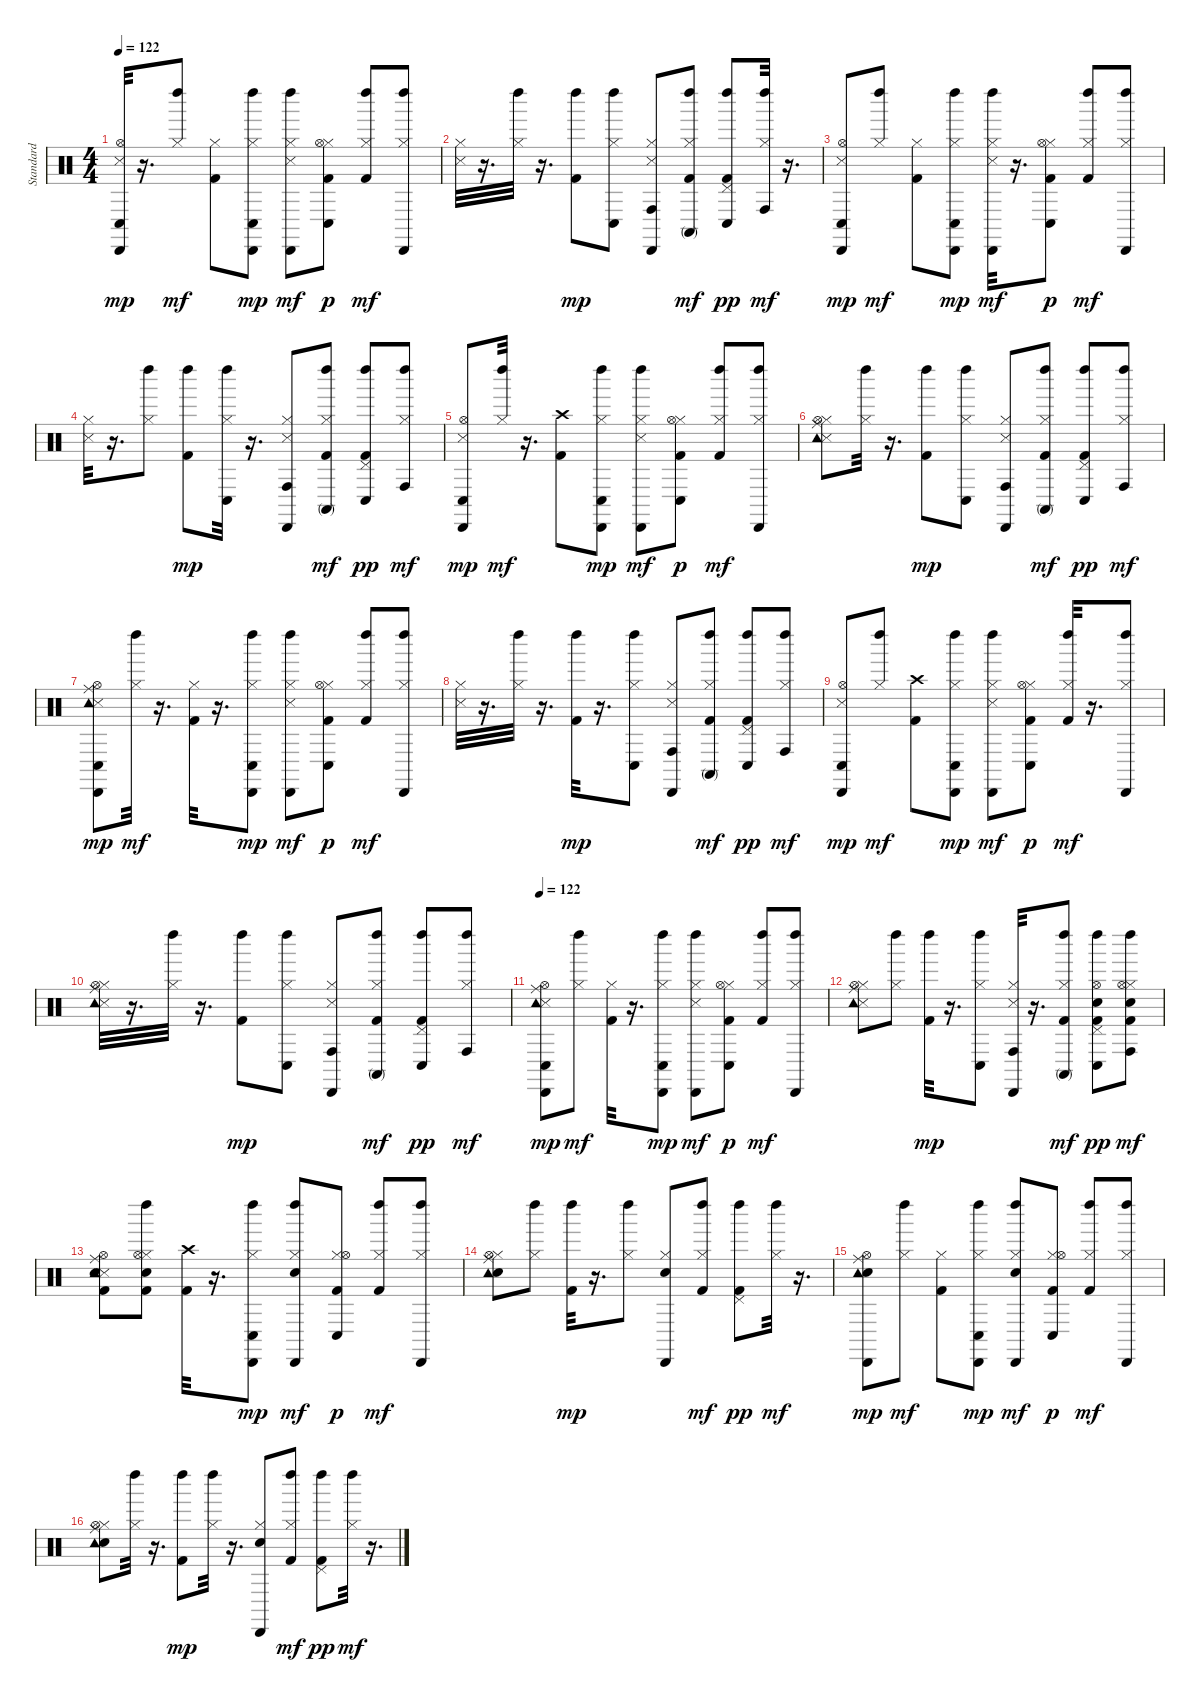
\track (" Standard" " Standard") {instrument percussion}
\staff {score}
\articulation defaults
\ts (4 4)
\tempo 122
\clef neutral
\ks c
("Snare (side stick) 3" "Hi-Hat (open)" "Conga low (hit)" "Cabasa (hit)").32{dy mp} r.16{d} ("Hi-Hat (closed)" "Left Maraca (hit)").8{dy mf} ("Kick (hit) 2" "Hi-Hat (closed)").8 ("Hi-Hat (closed)" "Conga low (hit)" "Cabasa (hit)" "Left Maraca (hit)").8{dy mp} ("Snare (side stick) 3" "Hi-Hat (closed)" "Cabasa (hit)" "Left Maraca (hit)").8{dy mf} ("Kick (hit) 2" "Hi-Hat (closed)" "Hi-Hat (open)" "Conga low (hit)").8{dy p} ("Kick (hit) 2" "Hi-Hat (closed)" "Left Maraca (hit)").8{dy mf} ("Hi-Hat (closed)" "Cabasa (hit)" "Left Maraca (hit)").8 |
("Snare (side stick) 3" "Hi-Hat (closed)").32 r.16{d} ("Hi-Hat (closed)" "Left Maraca (hit)").32 r.16{d} ("Kick (hit) 2" "Left Maraca (hit)").8{dy mp} ("Hi-Hat (closed)" "Conga low (hit)" "Left Maraca (hit)").8 ("Snare (side stick) 3" "Hi-Hat (closed)" "Conga high (hit)" "Cabasa (hit)").8 ("Kick (hit) 2" "Hi-Hat (closed)" "Conga high (mute)" "Left Maraca (hit)").8{dy mf} ("Kick (hit) 2" "Pedal Hi-Hat (hit)" "Conga low (hit)" "Left Maraca (hit)").8{dy pp} ("Hi-Hat (closed)" "Conga high (hit)" "Left Maraca (hit)").32{dy mf} r.16{d} |
("Snare (side stick) 3" "Hi-Hat (open)" "Conga low (hit)" "Cabasa (hit)").8{dy mp} ("Hi-Hat (closed)" "Left Maraca (hit)").8{dy mf} ("Kick (hit) 2" "Hi-Hat (closed)").8 ("Hi-Hat (closed)" "Conga low (hit)" "Cabasa (hit)" "Left Maraca (hit)").8{dy mp} ("Snare (side stick) 3" "Hi-Hat (closed)" "Cabasa (hit)" "Left Maraca (hit)").32{dy mf} r.16{d} ("Kick (hit) 2" "Hi-Hat (closed)" "Hi-Hat (open)" "Conga low (hit)").8{dy p} ("Kick (hit) 2" "Hi-Hat (closed)" "Left Maraca (hit)").8{dy mf} ("Hi-Hat (closed)" "Cabasa (hit)" "Left Maraca (hit)").8 |
("Snare (side stick) 3" "Hi-Hat (closed)").32 r.16{d} ("Hi-Hat (closed)" "Left Maraca (hit)").8 ("Kick (hit) 2" "Left Maraca (hit)").8{dy mp} ("Hi-Hat (closed)" "Conga low (hit)" "Left Maraca (hit)").32 r.16{d} ("Snare (side stick) 3" "Hi-Hat (closed)" "Conga high (hit)" "Cabasa (hit)").8 ("Kick (hit) 2" "Hi-Hat (closed)" "Conga high (mute)" "Left Maraca (hit)").8{dy mf} ("Kick (hit) 2" "Pedal Hi-Hat (hit)" "Conga low (hit)" "Left Maraca (hit)").8{dy pp} ("Hi-Hat (closed)" "Conga high (hit)" "Left Maraca (hit)").8{dy mf} |
("Snare (side stick) 3" "Hi-Hat (open)" "Conga low (hit)" "Cabasa (hit)").8{dy mp} ("Hi-Hat (closed)" "Left Maraca (hit)").32{dy mf} r.16{d} ("Kick (hit) 2" "Crash high (hit)").8 ("Hi-Hat (closed)" "Conga low (hit)" "Cabasa (hit)" "Left Maraca (hit)").8{dy mp} ("Snare (side stick) 3" "Hi-Hat (closed)" "Cabasa (hit)" "Left Maraca (hit)").8{dy mf} ("Kick (hit) 2" "Hi-Hat (closed)" "Hi-Hat (open)" "Conga low (hit)").8{dy p} ("Kick (hit) 2" "Hi-Hat (closed)" "Left Maraca (hit)").8{dy mf} ("Hi-Hat (closed)" "Cabasa (hit)" "Left Maraca (hit)").8 |
("Snare (side stick) 3" "Hi-Hat (closed)" "Hi-Hat (open)" "Ride (middle)" "Tambourine (hit)").8 ("Hi-Hat (closed)" "Left Maraca (hit)").32 r.16{d} ("Kick (hit) 2" "Left Maraca (hit)").8{dy mp} ("Hi-Hat (closed)" "Conga low (hit)" "Left Maraca (hit)").8 ("Snare (side stick) 3" "Hi-Hat (closed)" "Conga high (hit)" "Cabasa (hit)").8 ("Kick (hit) 2" "Hi-Hat (closed)" "Conga high (mute)" "Left Maraca (hit)").8{dy mf} ("Kick (hit) 2" "Pedal Hi-Hat (hit)" "Conga low (hit)" "Left Maraca (hit)").8{dy pp} ("Hi-Hat (closed)" "Conga high (hit)" "Left Maraca (hit)").8{dy mf} |
("Snare (side stick) 3" "Hi-Hat (open)" "Ride (middle)" "Tambourine (hit)" "Conga low (hit)" "Cabasa (hit)").8{dy mp} ("Hi-Hat (closed)" "Left Maraca (hit)").32{dy mf} r.16{d} ("Kick (hit) 2" "Hi-Hat (closed)").32 r.16{d} ("Hi-Hat (closed)" "Conga low (hit)" "Cabasa (hit)" "Left Maraca (hit)").8{dy mp} ("Snare (side stick) 3" "Hi-Hat (closed)" "Cabasa (hit)" "Left Maraca (hit)").8{dy mf} ("Kick (hit) 2" "Hi-Hat (closed)" "Hi-Hat (open)" "Conga low (hit)").8{dy p} ("Kick (hit) 2" "Hi-Hat (closed)" "Left Maraca (hit)").8{dy mf} ("Hi-Hat (closed)" "Cabasa (hit)" "Left Maraca (hit)").8 |
("Snare (side stick) 3" "Hi-Hat (closed)").32 r.16{d} ("Hi-Hat (closed)" "Left Maraca (hit)").32 r.16{d} ("Kick (hit) 2" "Left Maraca (hit)").32{dy mp} r.16{d} ("Hi-Hat (closed)" "Conga low (hit)" "Left Maraca (hit)").8 ("Snare (side stick) 3" "Hi-Hat (closed)" "Conga high (hit)" "Cabasa (hit)").8 ("Kick (hit) 2" "Hi-Hat (closed)" "Conga high (mute)" "Left Maraca (hit)").8{dy mf} ("Kick (hit) 2" "Pedal Hi-Hat (hit)" "Conga low (hit)" "Left Maraca (hit)").8{dy pp} ("Hi-Hat (closed)" "Conga high (hit)" "Left Maraca (hit)").8{dy mf} |
("Snare (side stick) 3" "Hi-Hat (open)" "Conga low (hit)" "Cabasa (hit)").8{dy mp} ("Hi-Hat (closed)" "Left Maraca (hit)").8{dy mf} ("Kick (hit) 2" "Crash high (hit)").8 ("Hi-Hat (closed)" "Conga low (hit)" "Cabasa (hit)" "Left Maraca (hit)").8{dy mp} ("Snare (side stick) 3" "Hi-Hat (closed)" "Cabasa (hit)" "Left Maraca (hit)").8{dy mf} ("Kick (hit) 2" "Hi-Hat (closed)" "Hi-Hat (open)" "Conga low (hit)").8{dy p} ("Kick (hit) 2" "Hi-Hat (closed)" "Left Maraca (hit)").32{dy mf} r.16{d} ("Hi-Hat (closed)" "Cabasa (hit)" "Left Maraca (hit)").8 |
("Snare (side stick) 3" "Hi-Hat (closed)" "Hi-Hat (open)" "Ride (middle)" "Tambourine (hit)").32 r.16{d} ("Hi-Hat (closed)" "Left Maraca (hit)").32 r.16{d} ("Kick (hit) 2" "Left Maraca (hit)").8{dy mp} ("Hi-Hat (closed)" "Conga low (hit)" "Left Maraca (hit)").8 ("Snare (side stick) 3" "Hi-Hat (closed)" "Conga high (hit)" "Cabasa (hit)").8 ("Kick (hit) 2" "Hi-Hat (closed)" "Conga high (mute)" "Left Maraca (hit)").8{dy mf} ("Kick (hit) 2" "Pedal Hi-Hat (hit)" "Conga low (hit)" "Left Maraca (hit)").8{dy pp} ("Hi-Hat (closed)" "Conga high (hit)" "Left Maraca (hit)").8{dy mf} |
\tempo 122
("Snare (side stick) 3" "Hi-Hat (open)" "Ride (middle)" "Tambourine (hit)" "Conga low (hit)" "Cabasa (hit)").8{dy mp} ("Hi-Hat (closed)" "Left Maraca (hit)").8{dy mf} ("Kick (hit) 2" "Hi-Hat (closed)").32 r.16{d} ("Hi-Hat (closed)" "Conga low (hit)" "Cabasa (hit)" "Left Maraca (hit)").8{dy mp} ("Snare (side stick) 3" "Hi-Hat (closed)" "Cabasa (hit)" "Left Maraca (hit)").8{dy mf} ("Kick (hit) 2" "Hi-Hat (closed)" "Hi-Hat (open)" "Conga low (hit)").8{dy p} ("Kick (hit) 2" "Hi-Hat (closed)" "Left Maraca (hit)").8{dy mf} ("Hi-Hat (closed)" "Cabasa (hit)" "Left Maraca (hit)").8 |
("Snare (side stick) 3" "Hi-Hat (closed)" "Hi-Hat (open)" "Ride (middle)" "Tambourine (hit)").8 ("Hi-Hat (closed)" "Left Maraca (hit)").8 ("Kick (hit) 2" "Left Maraca (hit)").32{dy mp} r.16{d} ("Hi-Hat (closed)" "Conga low (hit)" "Left Maraca (hit)").8 ("Snare (side stick) 3" "Hi-Hat (closed)" "Conga high (hit)" "Cabasa (hit)").32 r.16{d} ("Kick (hit) 2" "Hi-Hat (closed)" "Conga high (mute)" "Left Maraca (hit)").8{dy mf} ("Kick (hit) 2" "Snare (hit) 2" "Pedal Hi-Hat (hit)" "Hi-Hat (open)" "Conga low (hit)" "Left Maraca (hit)").8{dy pp} ("Kick (hit) 2" "Snare (hit) 2" "Hi-Hat (closed)" "Hi-Hat (open)" "Conga high (hit)" "Left Maraca (hit)").8{dy mf} |
("Kick (hit) 2" "Snare (side stick) 3" "Snare (hit) 2" "Hi-Hat (open)" "Ride (middle)" "Tambourine (hit)").8 ("Kick (hit) 2" "Snare (hit) 2" "Hi-Hat (closed)" "Hi-Hat (open)" "Left Maraca (hit)").8 ("Kick (hit) 2" "Crash high (hit)").32 r.16{d} ("Hi-Hat (closed)" "Conga low (hit)" "Cabasa (hit)" "Left Maraca (hit)").8{dy mp} ("Snare (hit) 2" "Hi-Hat (closed)" "Cabasa (hit)" "Left Maraca (hit)").8{dy mf} ("Kick (hit) 2" "Hi-Hat (closed)" "Hi-Hat (open)" "Conga low (hit)").8{dy p} ("Kick (hit) 2" "Hi-Hat (closed)" "Left Maraca (hit)").8{dy mf} ("Hi-Hat (closed)" "Cabasa (hit)" "Left Maraca (hit)").8 |
("Snare (hit) 2" "Hi-Hat (closed)" "Hi-Hat (open)" "Ride (middle)" "Tambourine (hit)").8 ("Hi-Hat (closed)" "Left Maraca (hit)").8 ("Kick (hit) 2" "Left Maraca (hit)").32{dy mp} r.16{d} ("Hi-Hat (closed)" "Left Maraca (hit)").8 ("Snare (hit) 2" "Hi-Hat (closed)" "Cabasa (hit)").8 ("Kick (hit) 2" "Hi-Hat (closed)" "Left Maraca (hit)").8{dy mf} ("Kick (hit) 2" "Pedal Hi-Hat (hit)" "Left Maraca (hit)").8{dy pp} ("Hi-Hat (closed)" "Left Maraca (hit)").32{dy mf} r.16{d} |
("Snare (hit) 2" "Hi-Hat (open)" "Ride (middle)" "Tambourine (hit)" "Cabasa (hit)").8{dy mp} ("Hi-Hat (closed)" "Left Maraca (hit)").8{dy mf} ("Kick (hit) 2" "Hi-Hat (closed)").8 ("Hi-Hat (closed)" "Conga low (hit)" "Cabasa (hit)" "Left Maraca (hit)").8{dy mp} ("Snare (hit) 2" "Hi-Hat (closed)" "Cabasa (hit)" "Left Maraca (hit)").8{dy mf} ("Kick (hit) 2" "Hi-Hat (closed)" "Hi-Hat (open)" "Conga low (hit)").8{dy p} ("Kick (hit) 2" "Hi-Hat (closed)" "Left Maraca (hit)").8{dy mf} ("Hi-Hat (closed)" "Cabasa (hit)" "Left Maraca (hit)").8 |
("Snare (hit) 2" "Hi-Hat (closed)" "Hi-Hat (open)" "Ride (middle)" "Tambourine (hit)").8 ("Hi-Hat (closed)" "Left Maraca (hit)").32 r.16{d} ("Kick (hit) 2" "Left Maraca (hit)").8{dy mp} ("Hi-Hat (closed)" "Left Maraca (hit)").32 r.16{d} ("Snare (hit) 2" "Hi-Hat (closed)" "Cabasa (hit)").8 ("Kick (hit) 2" "Hi-Hat (closed)" "Left Maraca (hit)").8{dy mf} ("Kick (hit) 2" "Pedal Hi-Hat (hit)" "Left Maraca (hit)").8{dy pp} ("Hi-Hat (closed)" "Left Maraca (hit)").32{dy mf} r.16{d}
